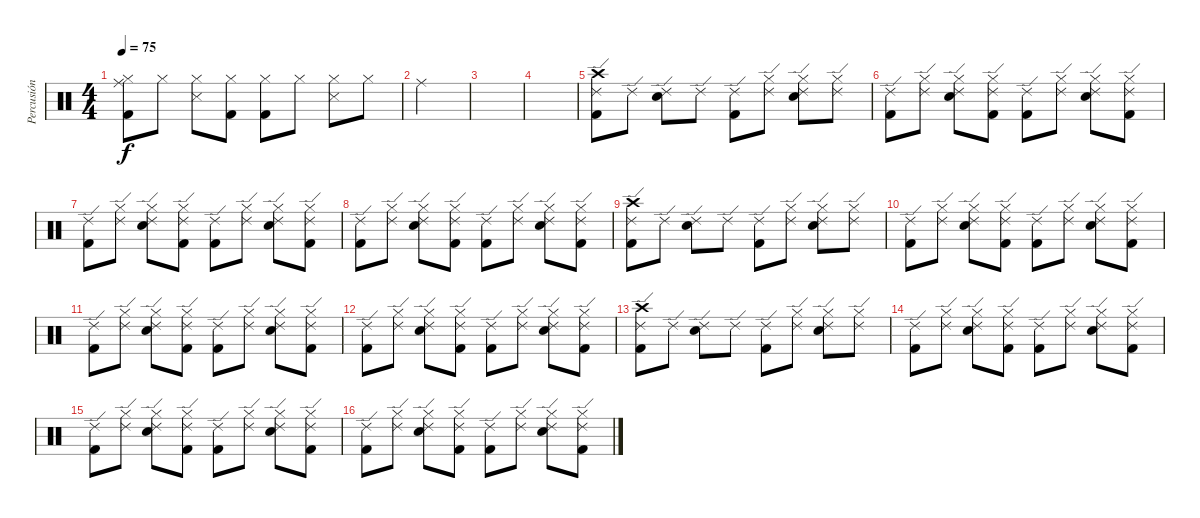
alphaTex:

\track ("Percusión" "Percusión") {instrument percussion}
\staff {score}
\articulation defaults
\ts (4 4)
\tempo 75
\clef neutral
\ks c
("Hi-Hat (closed)" "Kick (hit) 2" "Ride (middle)").8{dy f} "Hi-Hat (closed)".8 ("Hi-Hat (closed)" "Snare (side stick) 3").8 ("Hi-Hat (closed)" "Kick (hit) 2").8 ("Hi-Hat (closed)" "Kick (hit) 2").8 "Hi-Hat (closed)".8 ("Hi-Hat (closed)" "Snare (side stick) 3").8 "Hi-Hat (closed)".8 |
"Ride (middle)".2 |
|
|
("Ride (edge) 2" "Crash high (hit)" "Kick (hit) 2").8 "Ride (edge) 2".8 ("Ride (edge) 2" "Electric Snare (hit)").8 "Ride (edge) 2".8 ("Ride (edge) 2" "Kick (hit) 2").8 ("Ride (edge) 2" "Hi-Hat (closed)").8 ("Ride (edge) 2" "Electric Snare (hit)" "Hi-Hat (closed)").8 ("Ride (edge) 2" "Hi-Hat (closed)").8 |
("Ride (edge) 2" "Kick (hit) 2").8 ("Ride (edge) 2" "Hi-Hat (closed)").8 ("Ride (edge) 2" "Electric Snare (hit)" "Hi-Hat (closed)").8 ("Ride (edge) 2" "Hi-Hat (closed)" "Kick (hit) 2").8 ("Ride (edge) 2" "Kick (hit) 2").8 ("Ride (edge) 2" "Hi-Hat (closed)").8 ("Ride (edge) 2" "Electric Snare (hit)" "Hi-Hat (closed)").8 ("Ride (edge) 2" "Hi-Hat (closed)" "Kick (hit) 2").8 |
("Ride (edge) 2" "Kick (hit) 2").8 ("Ride (edge) 2" "Hi-Hat (closed)").8 ("Ride (edge) 2" "Electric Snare (hit)" "Hi-Hat (closed)").8 ("Ride (edge) 2" "Hi-Hat (closed)" "Kick (hit) 2").8 ("Ride (edge) 2" "Kick (hit) 2").8 ("Ride (edge) 2" "Hi-Hat (closed)").8 ("Ride (edge) 2" "Electric Snare (hit)" "Hi-Hat (closed)").8 ("Ride (edge) 2" "Hi-Hat (closed)" "Kick (hit) 2").8 |
("Ride (edge) 2" "Kick (hit) 2").8 ("Ride (edge) 2" "Hi-Hat (closed)").8 ("Ride (edge) 2" "Electric Snare (hit)" "Hi-Hat (closed)").8 ("Ride (edge) 2" "Hi-Hat (closed)" "Kick (hit) 2").8 ("Ride (edge) 2" "Kick (hit) 2").8 ("Ride (edge) 2" "Hi-Hat (closed)").8 ("Ride (edge) 2" "Electric Snare (hit)" "Hi-Hat (closed)").8 ("Ride (edge) 2" "Hi-Hat (closed)" "Kick (hit) 2").8 |
("Ride (edge) 2" "Crash high (hit)" "Kick (hit) 2").8 "Ride (edge) 2".8 ("Ride (edge) 2" "Electric Snare (hit)").8 "Ride (edge) 2".8 ("Ride (edge) 2" "Kick (hit) 2").8 ("Ride (edge) 2" "Hi-Hat (closed)").8 ("Ride (edge) 2" "Electric Snare (hit)" "Hi-Hat (closed)").8 ("Ride (edge) 2" "Hi-Hat (closed)").8 |
("Ride (edge) 2" "Kick (hit) 2").8 ("Ride (edge) 2" "Hi-Hat (closed)").8 ("Ride (edge) 2" "Electric Snare (hit)" "Hi-Hat (closed)").8 ("Ride (edge) 2" "Hi-Hat (closed)" "Kick (hit) 2").8 ("Ride (edge) 2" "Kick (hit) 2").8 ("Ride (edge) 2" "Hi-Hat (closed)").8 ("Ride (edge) 2" "Electric Snare (hit)" "Hi-Hat (closed)").8 ("Ride (edge) 2" "Hi-Hat (closed)" "Kick (hit) 2").8 |
("Ride (edge) 2" "Kick (hit) 2").8 ("Ride (edge) 2" "Hi-Hat (closed)").8 ("Ride (edge) 2" "Electric Snare (hit)" "Hi-Hat (closed)").8 ("Ride (edge) 2" "Hi-Hat (closed)" "Kick (hit) 2").8 ("Ride (edge) 2" "Kick (hit) 2").8 ("Ride (edge) 2" "Hi-Hat (closed)").8 ("Ride (edge) 2" "Electric Snare (hit)" "Hi-Hat (closed)").8 ("Ride (edge) 2" "Hi-Hat (closed)" "Kick (hit) 2").8 |
("Ride (edge) 2" "Kick (hit) 2").8 ("Ride (edge) 2" "Hi-Hat (closed)").8 ("Ride (edge) 2" "Electric Snare (hit)" "Hi-Hat (closed)").8 ("Ride (edge) 2" "Hi-Hat (closed)" "Kick (hit) 2").8 ("Ride (edge) 2" "Kick (hit) 2").8 ("Ride (edge) 2" "Hi-Hat (closed)").8 ("Ride (edge) 2" "Electric Snare (hit)" "Hi-Hat (closed)").8 ("Ride (edge) 2" "Hi-Hat (closed)" "Kick (hit) 2").8 |
("Ride (edge) 2" "Crash high (hit)" "Kick (hit) 2").8 "Ride (edge) 2".8 ("Ride (edge) 2" "Electric Snare (hit)").8 "Ride (edge) 2".8 ("Ride (edge) 2" "Kick (hit) 2").8 ("Ride (edge) 2" "Hi-Hat (closed)").8 ("Ride (edge) 2" "Electric Snare (hit)" "Hi-Hat (closed)").8 ("Ride (edge) 2" "Hi-Hat (closed)").8 |
("Ride (edge) 2" "Kick (hit) 2").8 ("Ride (edge) 2" "Hi-Hat (closed)").8 ("Ride (edge) 2" "Electric Snare (hit)" "Hi-Hat (closed)").8 ("Ride (edge) 2" "Hi-Hat (closed)" "Kick (hit) 2").8 ("Ride (edge) 2" "Kick (hit) 2").8 ("Ride (edge) 2" "Hi-Hat (closed)").8 ("Ride (edge) 2" "Electric Snare (hit)" "Hi-Hat (closed)").8 ("Ride (edge) 2" "Hi-Hat (closed)" "Kick (hit) 2").8 |
("Ride (edge) 2" "Kick (hit) 2").8 ("Ride (edge) 2" "Hi-Hat (closed)").8 ("Ride (edge) 2" "Electric Snare (hit)" "Hi-Hat (closed)").8 ("Ride (edge) 2" "Hi-Hat (closed)" "Kick (hit) 2").8 ("Ride (edge) 2" "Kick (hit) 2").8 ("Ride (edge) 2" "Hi-Hat (closed)").8 ("Ride (edge) 2" "Electric Snare (hit)" "Hi-Hat (closed)").8 ("Ride (edge) 2" "Hi-Hat (closed)" "Kick (hit) 2").8 |
("Ride (edge) 2" "Kick (hit) 2").8 ("Ride (edge) 2" "Hi-Hat (closed)").8 ("Ride (edge) 2" "Electric Snare (hit)" "Hi-Hat (closed)").8 ("Ride (edge) 2" "Hi-Hat (closed)" "Kick (hit) 2").8 ("Ride (edge) 2" "Kick (hit) 2").8 ("Ride (edge) 2" "Hi-Hat (closed)").8 ("Ride (edge) 2" "Electric Snare (hit)" "Hi-Hat (closed)").8 ("Ride (edge) 2" "Hi-Hat (closed)" "Kick (hit) 2").8
